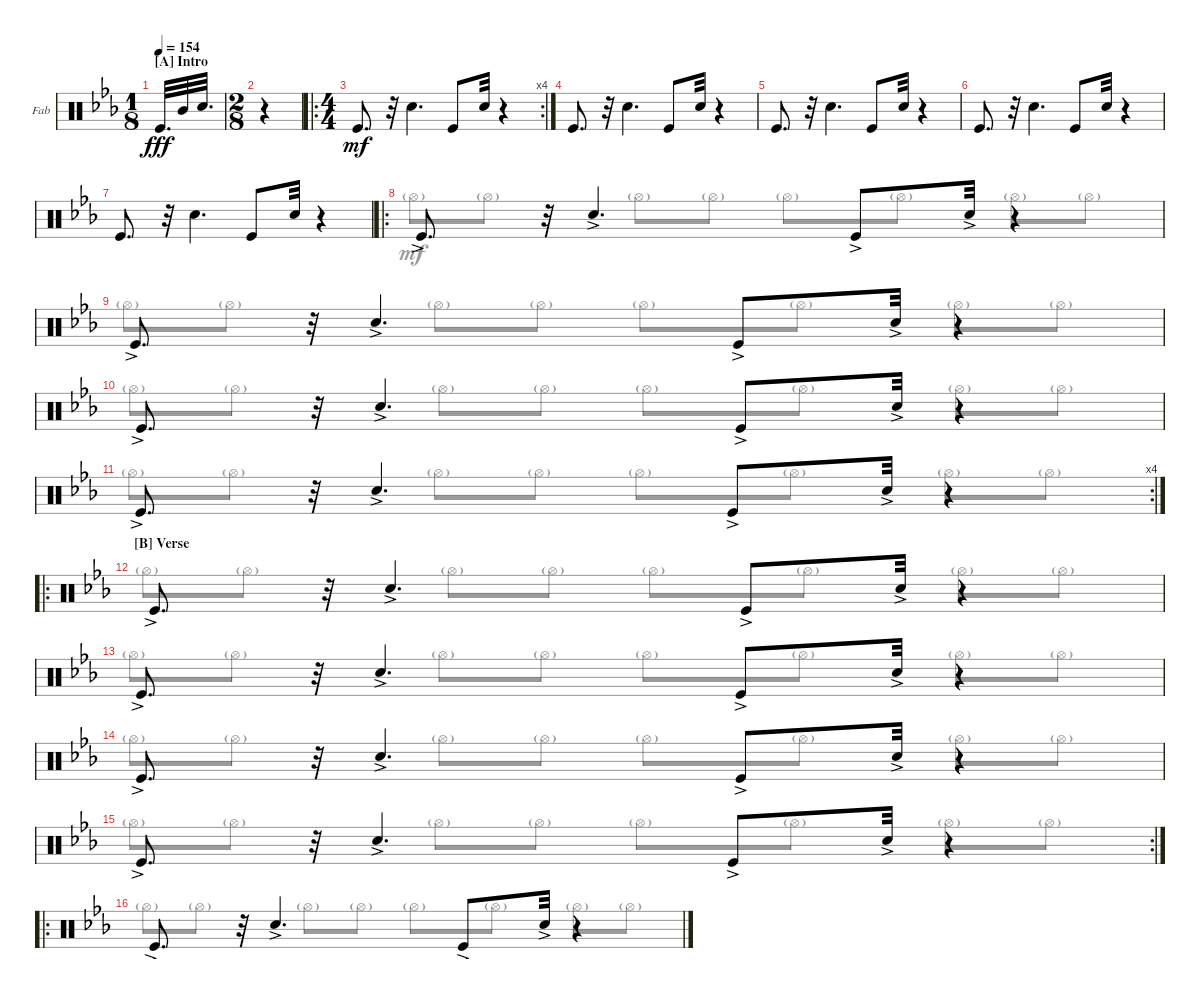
\defaultSystemsLayout 4
\bracketExtendMode groupsimilarinstruments
\firstSystemTrackNameOrientation horizontal
\otherSystemsTrackNameOrientation horizontal
\track ("Drums" "Fab") {instrument percussion}
\staff {score}
\articulation defaults
\voice
\ts (1 8)
\section ("A" "Intro")
\tempo 154
\clef neutral
\ks eb "Kick (hit)".32{d dy fff} "Mid Tom (hit)".32 "Snare (hit) 2".32{d}
|
\ts (2 8)
r.4 |
\ro
\rc 4
\ts (4 4)
"Kick (hit)".8{d dy mf} r.32 "Snare (hit) 2".4{d} "Kick (hit)".8 "Snare (hit) 2".32 r.4 |
\scale
0.54174 "Kick (hit)".8{d} r.32 "Snare (hit) 2".4{d} "Kick (hit)".8 "Snare (hit) 2".32 r.4 |
\scale
0.458176 "Kick (hit)".8{d} r.32 "Snare (hit) 2".4{d} "Kick (hit)".8 "Snare (hit) 2".32 r.4 |
\scale
0.54174 "Kick (hit)".8{d} r.32 "Snare (hit) 2".4{d} "Kick (hit)".8 "Snare (hit) 2".32 r.4 |
\scale
0.458176 "Kick (hit)".8{d} r.32 "Snare (hit) 2".4{d} "Kick (hit)".8 "Snare (hit) 2".32 r.4 |
\ro "Kick (hit)"{ac}.8{d}
r.32 "Snare (hit) 2"{ac}.4{d} "Kick (hit)"{ac}.8 "Snare (hit) 2"{ac}.32 r.4 |
"Kick (hit)"{ac}.8{d} r.32 "Snare (hit) 2"{ac}.4{d} "Kick (hit)"{ac}.8 "Snare (hit) 2"{ac}.32 r.4 |
\scale
0.5402 "Kick (hit)"{ac}.8{d} r.32 "Snare (hit) 2"{ac}.4{d} "Kick (hit)"{ac}.8 "Snare (hit) 2"{ac}.32 r.4 |
\rc 4
\scale
0.459895 "Kick (hit)"{ac}.8{d} r.32 "Snare (hit) 2"{ac}.4{d} "Kick (hit)"{ac}.8 "Snare (hit) 2"{ac}.32 r.4 |
\ro
\section ("B" "Verse")
"Kick (hit)"{ac}.8{d} r.32 "Snare (hit) 2"{ac}.4{d} "Kick (hit)"{ac}.8 "Snare (hit) 2"{ac}.32 r.4 |
"Kick (hit)"{ac}.8{d} r.32 "Snare (hit) 2"{ac}.4{d} "Kick (hit)"{ac}.8 "Snare (hit) 2"{ac}.32 r.4 |
\scale
0.525909 "Kick (hit)"{ac}.8{d} r.32 "Snare (hit) 2"{ac}.4{d} "Kick (hit)"{ac}.8 "Snare (hit) 2"{ac}.32 r.4 |
\rc 2
\scale
0.474133 "Kick (hit)"{ac}.8{d} r.32 "Snare (hit) 2"{ac}.4{d} "Kick (hit)"{ac}.8 "Snare (hit) 2"{ac}.32 r.4 |
\ro
\scale
0.522492 "Kick (hit)"{ac}.8{d} r.32 "Snare (hit) 2"{ac}.4{d} "Kick (hit)"{ac}.8 "Snare (hit) 2"{ac}.32 r.4
\voice
\clef neutral
\ottava regular
\simile none
\ks eb
|
|
|
\scale
0.54174 |
\scale
0.458176 |
\scale
0.54174 |
\scale
0.458176 |
"Hi-Hat (open)"{g}.8 "Hi-Hat (open)"{g}.8 "Hi-Hat (open)"{g}.8 "Hi-Hat (open)"{g}.8 "Hi-Hat (open)"{g}.8 "Hi-Hat (open)"{g}.8 "Hi-Hat (open)"{g}.8 "Hi-Hat (open)"{g}.8 |
"Hi-Hat (open)"{g}.8 "Hi-Hat (open)"{g}.8 "Hi-Hat (open)"{g}.8 "Hi-Hat (open)"{g}.8 "Hi-Hat (open)"{g}.8 "Hi-Hat (open)"{g}.8 "Hi-Hat (open)"{g}.8 "Hi-Hat (open)"{g}.8 |
\scale
0.5402 "Hi-Hat (open)"{g}.8 "Hi-Hat (open)"{g}.8 "Hi-Hat (open)"{g}.8 "Hi-Hat (open)"{g}.8 "Hi-Hat (open)"{g}.8 "Hi-Hat (open)"{g}.8 "Hi-Hat (open)"{g}.8 "Hi-Hat (open)"{g}.8 |
\scale
0.459895 "Hi-Hat (open)"{g}.8 "Hi-Hat (open)"{g}.8 "Hi-Hat (open)"{g}.8 "Hi-Hat (open)"{g}.8 "Hi-Hat (open)"{g}.8 "Hi-Hat (open)"{g}.8 "Hi-Hat (open)"{g}.8 "Hi-Hat (open)"{g}.8 |
"Hi-Hat (open)"{g}.8 "Hi-Hat (open)"{g}.8 "Hi-Hat (open)"{g}.8 "Hi-Hat (open)"{g}.8 "Hi-Hat (open)"{g}.8 "Hi-Hat (open)"{g}.8 "Hi-Hat (open)"{g}.8 "Hi-Hat (open)"{g}.8 |
"Hi-Hat (open)"{g}.8 "Hi-Hat (open)"{g}.8 "Hi-Hat (open)"{g}.8 "Hi-Hat (open)"{g}.8 "Hi-Hat (open)"{g}.8 "Hi-Hat (open)"{g}.8 "Hi-Hat (open)"{g}.8 "Hi-Hat (open)"{g}.8 |
\scale
0.525909 "Hi-Hat (open)"{g}.8 "Hi-Hat (open)"{g}.8 "Hi-Hat (open)"{g}.8 "Hi-Hat (open)"{g}.8 "Hi-Hat (open)"{g}.8 "Hi-Hat (open)"{g}.8 "Hi-Hat (open)"{g}.8 "Hi-Hat (open)"{g}.8 |
\scale
0.474133 "Hi-Hat (open)"{g}.8 "Hi-Hat (open)"{g}.8 "Hi-Hat (open)"{g}.8 "Hi-Hat (open)"{g}.8 "Hi-Hat (open)"{g}.8 "Hi-Hat (open)"{g}.8 "Hi-Hat (open)"{g}.8 "Hi-Hat (open)"{g}.8 |
\scale
0.522492 "Hi-Hat (open)"{g}.8 "Hi-Hat (open)"{g}.8 "Hi-Hat (open)"{g}.8 "Hi-Hat (open)"{g}.8 "Hi-Hat (open)"{g}.8 "Hi-Hat (open)"{g}.8 "Hi-Hat (open)"{g}.8 "Hi-Hat (open)"{g}.8
